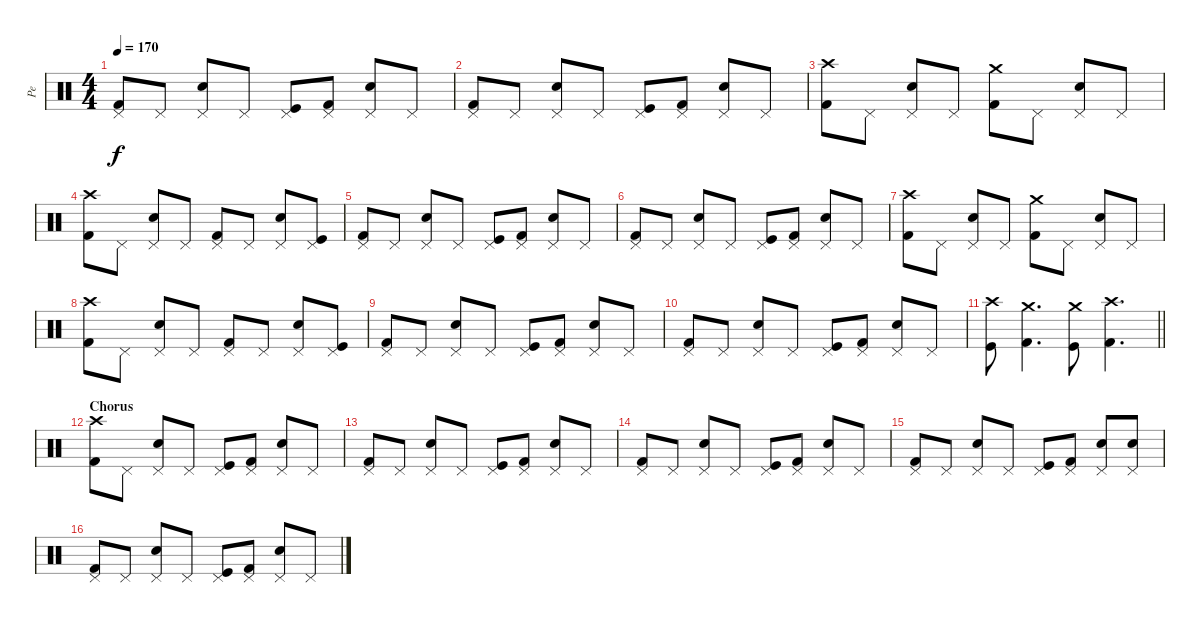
\track ("Pe" "Pe") {instrument percussion}
\staff {score}
\articulation defaults
\ts (4 4)
\tempo 170
\clef neutral
\ks c
("Kick (hit) 2" "Pedal Hi-Hat (hit)").8{dy f} "Pedal Hi-Hat (hit)".8 ("Electric Snare (hit)" "Pedal Hi-Hat (hit)").8 "Pedal Hi-Hat (hit)".8 ("Kick (hit)" "Pedal Hi-Hat (hit)").8 ("Kick (hit) 2" "Pedal Hi-Hat (hit)").8 ("Electric Snare (hit)" "Pedal Hi-Hat (hit)").8 "Pedal Hi-Hat (hit)".8 |
("Kick (hit) 2" "Pedal Hi-Hat (hit)").8 "Pedal Hi-Hat (hit)".8 ("Electric Snare (hit)" "Pedal Hi-Hat (hit)").8 "Pedal Hi-Hat (hit)".8 ("Kick (hit)" "Pedal Hi-Hat (hit)").8 ("Kick (hit) 2" "Pedal Hi-Hat (hit)").8 ("Electric Snare (hit)" "Pedal Hi-Hat (hit)").8 "Pedal Hi-Hat (hit)".8 |
("Kick (hit) 2" "Crash high (hit)").8 "Pedal Hi-Hat (hit)".8 ("Electric Snare (hit)" "Pedal Hi-Hat (hit)").8 "Pedal Hi-Hat (hit)".8 ("Kick (hit) 2" "Crash medium (hit)").8 "Pedal Hi-Hat (hit)".8 ("Electric Snare (hit)" "Pedal Hi-Hat (hit)").8 "Pedal Hi-Hat (hit)".8 |
("Kick (hit) 2" "Crash high (hit)").8 "Pedal Hi-Hat (hit)".8 ("Electric Snare (hit)" "Pedal Hi-Hat (hit)").8 "Pedal Hi-Hat (hit)".8 ("Kick (hit) 2" "Pedal Hi-Hat (hit)").8 "Pedal Hi-Hat (hit)".8 ("Electric Snare (hit)" "Pedal Hi-Hat (hit)").8 ("Kick (hit)" "Pedal Hi-Hat (hit)").8 |
("Kick (hit) 2" "Pedal Hi-Hat (hit)").8 "Pedal Hi-Hat (hit)".8 ("Electric Snare (hit)" "Pedal Hi-Hat (hit)").8 "Pedal Hi-Hat (hit)".8 ("Kick (hit)" "Pedal Hi-Hat (hit)").8 ("Kick (hit) 2" "Pedal Hi-Hat (hit)").8 ("Electric Snare (hit)" "Pedal Hi-Hat (hit)").8 "Pedal Hi-Hat (hit)".8 |
("Kick (hit) 2" "Pedal Hi-Hat (hit)").8 "Pedal Hi-Hat (hit)".8 ("Electric Snare (hit)" "Pedal Hi-Hat (hit)").8 "Pedal Hi-Hat (hit)".8 ("Kick (hit)" "Pedal Hi-Hat (hit)").8 ("Kick (hit) 2" "Pedal Hi-Hat (hit)").8 ("Electric Snare (hit)" "Pedal Hi-Hat (hit)").8 "Pedal Hi-Hat (hit)".8 |
("Kick (hit) 2" "Crash high (hit)").8 "Pedal Hi-Hat (hit)".8 ("Electric Snare (hit)" "Pedal Hi-Hat (hit)").8 "Pedal Hi-Hat (hit)".8 ("Kick (hit) 2" "Crash medium (hit)").8 "Pedal Hi-Hat (hit)".8 ("Electric Snare (hit)" "Pedal Hi-Hat (hit)").8 "Pedal Hi-Hat (hit)".8 |
("Kick (hit) 2" "Crash high (hit)").8 "Pedal Hi-Hat (hit)".8 ("Electric Snare (hit)" "Pedal Hi-Hat (hit)").8 "Pedal Hi-Hat (hit)".8 ("Kick (hit) 2" "Pedal Hi-Hat (hit)").8 "Pedal Hi-Hat (hit)".8 ("Electric Snare (hit)" "Pedal Hi-Hat (hit)").8 ("Kick (hit)" "Pedal Hi-Hat (hit)").8 |
("Kick (hit) 2" "Pedal Hi-Hat (hit)").8 "Pedal Hi-Hat (hit)".8 ("Electric Snare (hit)" "Pedal Hi-Hat (hit)").8 "Pedal Hi-Hat (hit)".8 ("Kick (hit)" "Pedal Hi-Hat (hit)").8 ("Kick (hit) 2" "Pedal Hi-Hat (hit)").8 ("Electric Snare (hit)" "Pedal Hi-Hat (hit)").8 "Pedal Hi-Hat (hit)".8 |
("Kick (hit) 2" "Pedal Hi-Hat (hit)").8 "Pedal Hi-Hat (hit)".8 ("Electric Snare (hit)" "Pedal Hi-Hat (hit)").8 "Pedal Hi-Hat (hit)".8 ("Kick (hit)" "Pedal Hi-Hat (hit)").8 ("Kick (hit) 2" "Pedal Hi-Hat (hit)").8 ("Electric Snare (hit)" "Pedal Hi-Hat (hit)").8 "Pedal Hi-Hat (hit)".8 |
\barLineRight lightlight
("Kick (hit)" "Crash high (hit)").8 ("Kick (hit) 2" "Crash medium (hit)").4{d} ("Kick (hit)" "Crash medium (hit)").8 ("Kick (hit) 2" "Crash high (hit)").4{d} |
\section ("" "Chorus")
("Kick (hit) 2" "Crash high (hit)").8 "Pedal Hi-Hat (hit)".8 ("Electric Snare (hit)" "Pedal Hi-Hat (hit)").8 "Pedal Hi-Hat (hit)".8 ("Kick (hit)" "Pedal Hi-Hat (hit)").8 ("Kick (hit) 2" "Pedal Hi-Hat (hit)").8 ("Electric Snare (hit)" "Pedal Hi-Hat (hit)").8 "Pedal Hi-Hat (hit)".8 |
("Kick (hit) 2" "Pedal Hi-Hat (hit)").8 "Pedal Hi-Hat (hit)".8 ("Electric Snare (hit)" "Pedal Hi-Hat (hit)").8 "Pedal Hi-Hat (hit)".8 ("Kick (hit)" "Pedal Hi-Hat (hit)").8 ("Kick (hit) 2" "Pedal Hi-Hat (hit)").8 ("Electric Snare (hit)" "Pedal Hi-Hat (hit)").8 "Pedal Hi-Hat (hit)".8 |
("Kick (hit) 2" "Pedal Hi-Hat (hit)").8 "Pedal Hi-Hat (hit)".8 ("Electric Snare (hit)" "Pedal Hi-Hat (hit)").8 "Pedal Hi-Hat (hit)".8 ("Kick (hit)" "Pedal Hi-Hat (hit)").8 ("Kick (hit) 2" "Pedal Hi-Hat (hit)").8 ("Electric Snare (hit)" "Pedal Hi-Hat (hit)").8 "Pedal Hi-Hat (hit)".8 |
("Kick (hit) 2" "Pedal Hi-Hat (hit)").8 "Pedal Hi-Hat (hit)".8 ("Electric Snare (hit)" "Pedal Hi-Hat (hit)").8 "Pedal Hi-Hat (hit)".8 ("Kick (hit)" "Pedal Hi-Hat (hit)").8 ("Kick (hit) 2" "Pedal Hi-Hat (hit)").8 ("Electric Snare (hit)" "Pedal Hi-Hat (hit)").8 ("Electric Snare (hit)" "Pedal Hi-Hat (hit)").8 |
("Kick (hit) 2" "Pedal Hi-Hat (hit)").8 "Pedal Hi-Hat (hit)".8 ("Electric Snare (hit)" "Pedal Hi-Hat (hit)").8 "Pedal Hi-Hat (hit)".8 ("Kick (hit)" "Pedal Hi-Hat (hit)").8 ("Kick (hit) 2" "Pedal Hi-Hat (hit)").8 ("Electric Snare (hit)" "Pedal Hi-Hat (hit)").8 "Pedal Hi-Hat (hit)".8
